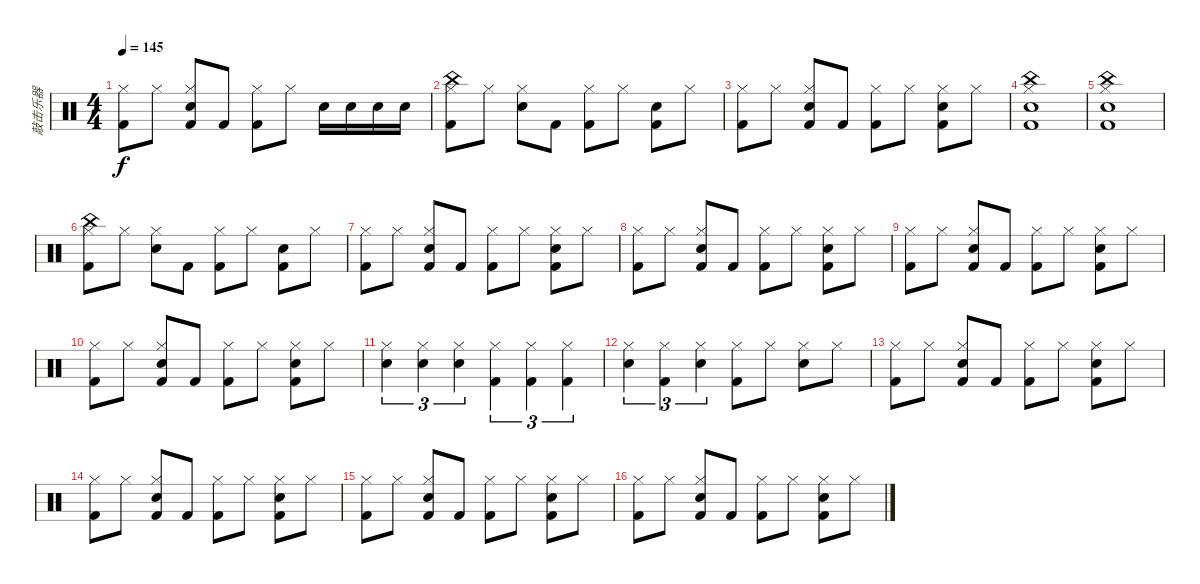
\track ("敲击乐器" "敲击乐器") {instrument percussion}
\staff {score}
\articulation defaults
\ts (4 4)
\tempo 145
\clef neutral
\ks c
("Kick (hit) 2" "Hi-Hat (closed)").8{dy f} "Hi-Hat (closed)".8 ("Electric Snare (hit)" "Kick (hit) 2" "Hi-Hat (closed)").8 "Kick (hit) 2".8 ("Kick (hit) 2" "Hi-Hat (closed)").8 "Hi-Hat (closed)".8 "Electric Snare (hit)".16 "Electric Snare (hit)".16 "Electric Snare (hit)".16 "Electric Snare (hit)".16 |
("Kick (hit) 2" "Hi-Hat (closed)" "China (hit)").8 "Hi-Hat (closed)".8 ("Electric Snare (hit)" "Hi-Hat (closed)").8 "Kick (hit) 2".8 ("Kick (hit) 2" "Hi-Hat (closed)").8 "Hi-Hat (closed)".8 ("Electric Snare (hit)" "Kick (hit) 2").8 "Hi-Hat (closed)".8 |
("Kick (hit) 2" "Hi-Hat (closed)").8 "Hi-Hat (closed)".8 ("Electric Snare (hit)" "Kick (hit) 2" "Hi-Hat (closed)").8 "Kick (hit) 2".8 ("Kick (hit) 2" "Hi-Hat (closed)").8 "Hi-Hat (closed)".8 ("Electric Snare (hit)" "Kick (hit) 2" "Hi-Hat (closed)").8 "Hi-Hat (closed)".8 |
("China (hit)" "Hi-Hat (closed)" "Kick (hit) 2" "Electric Snare (hit)").1 |
("China (hit)" "Hi-Hat (closed)" "Kick (hit) 2" "Electric Snare (hit)").1 |
("Kick (hit) 2" "Hi-Hat (closed)" "China (hit)").8 "Hi-Hat (closed)".8 ("Electric Snare (hit)" "Hi-Hat (closed)").8 "Kick (hit) 2".8 ("Kick (hit) 2" "Hi-Hat (closed)").8 "Hi-Hat (closed)".8 ("Electric Snare (hit)" "Kick (hit) 2").8 "Hi-Hat (closed)".8 |
("Kick (hit) 2" "Hi-Hat (closed)").8 "Hi-Hat (closed)".8 ("Electric Snare (hit)" "Kick (hit) 2" "Hi-Hat (closed)").8 "Kick (hit) 2".8 ("Kick (hit) 2" "Hi-Hat (closed)").8 "Hi-Hat (closed)".8 ("Electric Snare (hit)" "Kick (hit) 2" "Hi-Hat (closed)").8 "Hi-Hat (closed)".8 |
("Kick (hit) 2" "Hi-Hat (closed)").8 "Hi-Hat (closed)".8 ("Electric Snare (hit)" "Kick (hit) 2" "Hi-Hat (closed)").8 "Kick (hit) 2".8 ("Kick (hit) 2" "Hi-Hat (closed)").8 "Hi-Hat (closed)".8 ("Electric Snare (hit)" "Kick (hit) 2" "Hi-Hat (closed)").8 "Hi-Hat (closed)".8 |
("Kick (hit) 2" "Hi-Hat (closed)").8 "Hi-Hat (closed)".8 ("Electric Snare (hit)" "Kick (hit) 2" "Hi-Hat (closed)").8 "Kick (hit) 2".8 ("Kick (hit) 2" "Hi-Hat (closed)").8 "Hi-Hat (closed)".8 ("Electric Snare (hit)" "Kick (hit) 2" "Hi-Hat (closed)").8 "Hi-Hat (closed)".8 |
("Kick (hit) 2" "Hi-Hat (closed)").8 "Hi-Hat (closed)".8 ("Electric Snare (hit)" "Kick (hit) 2" "Hi-Hat (closed)").8 "Kick (hit) 2".8 ("Kick (hit) 2" "Hi-Hat (closed)").8 "Hi-Hat (closed)".8 ("Electric Snare (hit)" "Kick (hit) 2" "Hi-Hat (closed)").8 "Hi-Hat (closed)".8 |
("Hi-Hat (closed)" "Electric Snare (hit)").4{tu (3 2)} ("Hi-Hat (closed)" "Electric Snare (hit)").4{tu (3 2)} ("Hi-Hat (closed)" "Electric Snare (hit)").4{tu (3 2)} ("Hi-Hat (closed)" "Kick (hit) 2").4{tu (3 2)} ("Hi-Hat (closed)" "Kick (hit) 2").4{tu (3 2)} ("Hi-Hat (closed)" "Kick (hit) 2").4{tu (3 2)} |
("Hi-Hat (closed)" "Electric Snare (hit)").4{tu (3 2)} ("Hi-Hat (closed)" "Kick (hit) 2").4{tu (3 2)} ("Hi-Hat (closed)" "Electric Snare (hit)").4{tu (3 2)} ("Hi-Hat (closed)" "Kick (hit) 2").8 "Hi-Hat (closed)".8 ("Electric Snare (hit)" "Hi-Hat (closed)").8 "Hi-Hat (closed)".8 |
("Kick (hit) 2" "Hi-Hat (closed)").8 "Hi-Hat (closed)".8 ("Electric Snare (hit)" "Kick (hit) 2" "Hi-Hat (closed)").8 "Kick (hit) 2".8 ("Kick (hit) 2" "Hi-Hat (closed)").8 "Hi-Hat (closed)".8 ("Electric Snare (hit)" "Kick (hit) 2" "Hi-Hat (closed)").8 "Hi-Hat (closed)".8 |
("Kick (hit) 2" "Hi-Hat (closed)").8 "Hi-Hat (closed)".8 ("Electric Snare (hit)" "Kick (hit) 2" "Hi-Hat (closed)").8 "Kick (hit) 2".8 ("Kick (hit) 2" "Hi-Hat (closed)").8 "Hi-Hat (closed)".8 ("Electric Snare (hit)" "Kick (hit) 2" "Hi-Hat (closed)").8 "Hi-Hat (closed)".8 |
("Kick (hit) 2" "Hi-Hat (closed)").8 "Hi-Hat (closed)".8 ("Electric Snare (hit)" "Kick (hit) 2" "Hi-Hat (closed)").8 "Kick (hit) 2".8 ("Kick (hit) 2" "Hi-Hat (closed)").8 "Hi-Hat (closed)".8 ("Electric Snare (hit)" "Kick (hit) 2" "Hi-Hat (closed)").8 "Hi-Hat (closed)".8 |
("Kick (hit) 2" "Hi-Hat (closed)").8 "Hi-Hat (closed)".8 ("Electric Snare (hit)" "Kick (hit) 2" "Hi-Hat (closed)").8 "Kick (hit) 2".8 ("Kick (hit) 2" "Hi-Hat (closed)").8 "Hi-Hat (closed)".8 ("Electric Snare (hit)" "Kick (hit) 2" "Hi-Hat (closed)").8 "Hi-Hat (closed)".8
